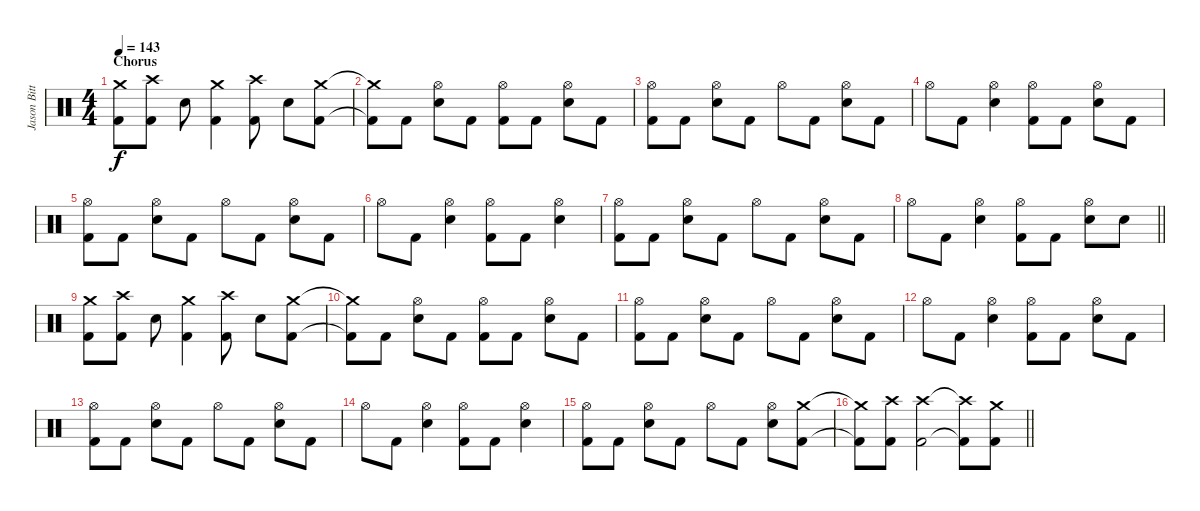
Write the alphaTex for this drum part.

\track ("Jason Bittner" "Jason Bitt") {instrument percussion}
\staff {score}
\articulation defaults
\ts (4 4)
\section ("" "Chorus")
\tempo 143
\clef neutral
\ks c
("Crash medium (hit)" "Kick (hit) 2").8{dy f} ("Crash high (hit)" "Kick (hit) 2").8 "Electric Snare (hit)".8 ("Crash medium (hit)" "Kick (hit) 2").4 ("Crash high (hit)" "Kick (hit) 2").8 "Electric Snare (hit)".8 ("Crash medium (hit)" "Kick (hit) 2").8 |
("Crash medium (hit)"{t} "Kick (hit) 2"{t}).8 "Kick (hit) 2".8 ("Hi-Hat (open)" "Electric Snare (hit)").8 "Kick (hit) 2".8 ("Hi-Hat (open)" "Kick (hit) 2").8 "Kick (hit) 2".8 ("Hi-Hat (open)" "Electric Snare (hit)").8 "Kick (hit) 2".8 |
("Hi-Hat (open)" "Kick (hit) 2").8 "Kick (hit) 2".8 ("Hi-Hat (open)" "Electric Snare (hit)").8 "Kick (hit) 2".8 "Hi-Hat (open)".8 "Kick (hit) 2".8 ("Hi-Hat (open)" "Electric Snare (hit)").8 "Kick (hit) 2".8 |
"Hi-Hat (open)".8 "Kick (hit) 2".8 ("Hi-Hat (open)" "Electric Snare (hit)").4 ("Hi-Hat (open)" "Kick (hit) 2").8 "Kick (hit) 2".8 ("Hi-Hat (open)" "Electric Snare (hit)").8 "Kick (hit) 2".8 |
("Hi-Hat (open)" "Kick (hit) 2").8 "Kick (hit) 2".8 ("Hi-Hat (open)" "Electric Snare (hit)").8 "Kick (hit) 2".8 "Hi-Hat (open)".8 "Kick (hit) 2".8 ("Hi-Hat (open)" "Electric Snare (hit)").8 "Kick (hit) 2".8 |
"Hi-Hat (open)".8 "Kick (hit) 2".8 ("Hi-Hat (open)" "Electric Snare (hit)").4 ("Hi-Hat (open)" "Kick (hit) 2").8 "Kick (hit) 2".8 ("Hi-Hat (open)" "Electric Snare (hit)").4 |
("Hi-Hat (open)" "Kick (hit) 2").8 "Kick (hit) 2".8 ("Hi-Hat (open)" "Electric Snare (hit)").8 "Kick (hit) 2".8 "Hi-Hat (open)".8 "Kick (hit) 2".8 ("Hi-Hat (open)" "Electric Snare (hit)").8 "Kick (hit) 2".8 |
\barLineRight lightlight "Hi-Hat (open)".8 "Kick (hit) 2".8
("Hi-Hat (open)" "Electric Snare (hit)").4 ("Hi-Hat (open)" "Kick (hit) 2").8 "Kick (hit) 2".8 ("Hi-Hat (open)" "Electric Snare (hit)").8 "Electric Snare (hit)".8 |
("Crash medium (hit)" "Kick (hit) 2").8 ("Crash high (hit)" "Kick (hit) 2").8 "Electric Snare (hit)".8 ("Crash medium (hit)" "Kick (hit) 2").4 ("Crash high (hit)" "Kick (hit) 2").8 "Electric Snare (hit)".8 ("Crash medium (hit)" "Kick (hit) 2").8 |
("Crash medium (hit)"{t} "Kick (hit) 2"{t}).8 "Kick (hit) 2".8 ("Hi-Hat (open)" "Electric Snare (hit)").8 "Kick (hit) 2".8 ("Hi-Hat (open)" "Kick (hit) 2").8 "Kick (hit) 2".8 ("Hi-Hat (open)" "Electric Snare (hit)").8 "Kick (hit) 2".8 |
("Hi-Hat (open)" "Kick (hit) 2").8 "Kick (hit) 2".8 ("Hi-Hat (open)" "Electric Snare (hit)").8 "Kick (hit) 2".8 "Hi-Hat (open)".8 "Kick (hit) 2".8 ("Hi-Hat (open)" "Electric Snare (hit)").8 "Kick (hit) 2".8 |
"Hi-Hat (open)".8 "Kick (hit) 2".8 ("Hi-Hat (open)" "Electric Snare (hit)").4 ("Hi-Hat (open)" "Kick (hit) 2").8 "Kick (hit) 2".8 ("Hi-Hat (open)" "Electric Snare (hit)").8 "Kick (hit) 2".8 |
("Hi-Hat (open)" "Kick (hit) 2").8 "Kick (hit) 2".8 ("Hi-Hat (open)" "Electric Snare (hit)").8 "Kick (hit) 2".8 "Hi-Hat (open)".8 "Kick (hit) 2".8 ("Hi-Hat (open)" "Electric Snare (hit)").8 "Kick (hit) 2".8 |
"Hi-Hat (open)".8 "Kick (hit) 2".8 ("Hi-Hat (open)" "Electric Snare (hit)").4 ("Hi-Hat (open)" "Kick (hit) 2").8 "Kick (hit) 2".8 ("Hi-Hat (open)" "Electric Snare (hit)").4 |
("Hi-Hat (open)" "Kick (hit) 2").8 "Kick (hit) 2".8 ("Hi-Hat (open)" "Electric Snare (hit)").8 "Kick (hit) 2".8 "Hi-Hat (open)".8 "Kick (hit) 2".8 ("Hi-Hat (open)" "Electric Snare (hit)").8 ("Crash medium (hit)" "Kick (hit) 2").8 |
\barLineRight lightlight
("Crash medium (hit)"{t} "Kick (hit) 2"{t}).8 ("Crash high (hit)" "Kick (hit) 2").8 ("Crash high (hit)" "Kick (hit) 2").2 ("Crash high (hit)"{t} "Kick (hit) 2"{t}).8 ("Crash medium (hit)" "Kick (hit) 2").8
